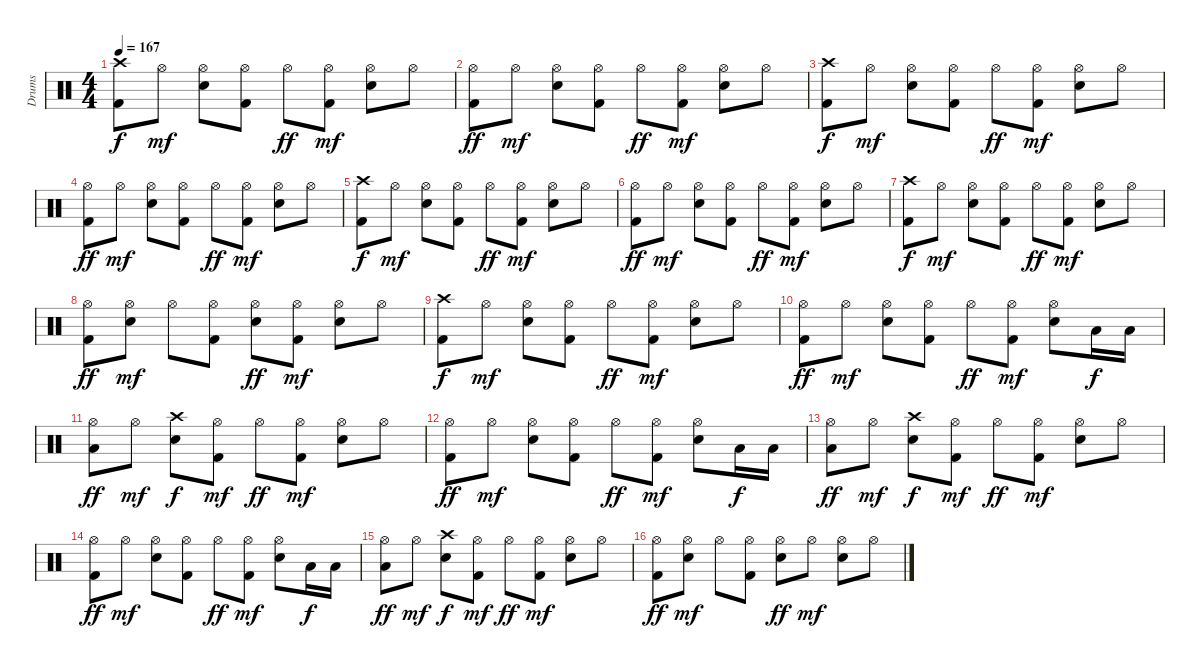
\track ("Drums" "Drums") {instrument percussion}
\staff {score}
\articulation defaults
\ts (4 4)
\tempo 167
\clef neutral
\ks c
("Crash high (hit)" "Kick (hit) 2").8{dy f} "Hi-Hat (open)".8{dy mf} ("Hi-Hat (open)" "Electric Snare (hit)").8 ("Hi-Hat (open)" "Kick (hit) 2").8 "Hi-Hat (open)".8{dy ff} ("Hi-Hat (open)" "Kick (hit) 2").8{dy mf} ("Hi-Hat (open)" "Electric Snare (hit)").8 "Hi-Hat (open)".8 |
("Hi-Hat (open)" "Kick (hit) 2").8{dy ff} "Hi-Hat (open)".8{dy mf} ("Hi-Hat (open)" "Electric Snare (hit)").8 ("Hi-Hat (open)" "Kick (hit) 2").8 "Hi-Hat (open)".8{dy ff} ("Hi-Hat (open)" "Kick (hit) 2").8{dy mf} ("Hi-Hat (open)" "Electric Snare (hit)").8 "Hi-Hat (open)".8 |
("Crash high (hit)" "Kick (hit) 2").8{dy f} "Hi-Hat (open)".8{dy mf} ("Hi-Hat (open)" "Electric Snare (hit)").8 ("Hi-Hat (open)" "Kick (hit) 2").8 "Hi-Hat (open)".8{dy ff} ("Hi-Hat (open)" "Kick (hit) 2").8{dy mf} ("Hi-Hat (open)" "Electric Snare (hit)").8 "Hi-Hat (open)".8 |
("Hi-Hat (open)" "Kick (hit) 2").8{dy ff} "Hi-Hat (open)".8{dy mf} ("Hi-Hat (open)" "Electric Snare (hit)").8 ("Hi-Hat (open)" "Kick (hit) 2").8 "Hi-Hat (open)".8{dy ff} ("Hi-Hat (open)" "Kick (hit) 2").8{dy mf} ("Hi-Hat (open)" "Electric Snare (hit)").8 "Hi-Hat (open)".8 |
("Crash high (hit)" "Kick (hit) 2").8{dy f} "Hi-Hat (open)".8{dy mf} ("Hi-Hat (open)" "Electric Snare (hit)").8 ("Hi-Hat (open)" "Kick (hit) 2").8 "Hi-Hat (open)".8{dy ff} ("Hi-Hat (open)" "Kick (hit) 2").8{dy mf} ("Hi-Hat (open)" "Electric Snare (hit)").8 "Hi-Hat (open)".8 |
("Hi-Hat (open)" "Kick (hit) 2").8{dy ff} "Hi-Hat (open)".8{dy mf} ("Hi-Hat (open)" "Electric Snare (hit)").8 ("Hi-Hat (open)" "Kick (hit) 2").8 "Hi-Hat (open)".8{dy ff} ("Hi-Hat (open)" "Kick (hit) 2").8{dy mf} ("Hi-Hat (open)" "Electric Snare (hit)").8 "Hi-Hat (open)".8 |
("Crash high (hit)" "Kick (hit) 2").8{dy f} "Hi-Hat (open)".8{dy mf} ("Hi-Hat (open)" "Electric Snare (hit)").8 ("Hi-Hat (open)" "Kick (hit) 2").8 "Hi-Hat (open)".8{dy ff} ("Hi-Hat (open)" "Kick (hit) 2").8{dy mf} ("Hi-Hat (open)" "Electric Snare (hit)").8 "Hi-Hat (open)".8 |
("Hi-Hat (open)" "Kick (hit) 2").8{dy ff} ("Hi-Hat (open)" "Electric Snare (hit)").8{dy mf} "Hi-Hat (open)".8 ("Hi-Hat (open)" "Kick (hit) 2").8 ("Hi-Hat (open)" "Electric Snare (hit)").8{dy ff} ("Hi-Hat (open)" "Kick (hit) 2").8{dy mf} ("Hi-Hat (open)" "Electric Snare (hit)").8 "Hi-Hat (open)".8 |
("Crash high (hit)" "Kick (hit) 2").8{dy f} "Hi-Hat (open)".8{dy mf} ("Hi-Hat (open)" "Electric Snare (hit)").8 ("Hi-Hat (open)" "Kick (hit) 2").8 "Hi-Hat (open)".8{dy ff} ("Hi-Hat (open)" "Kick (hit) 2").8{dy mf} ("Hi-Hat (open)" "Electric Snare (hit)").8 "Hi-Hat (open)".8 |
("Hi-Hat (open)" "Kick (hit) 2").8{dy ff} "Hi-Hat (open)".8{dy mf} ("Hi-Hat (open)" "Electric Snare (hit)").8 ("Hi-Hat (open)" "Kick (hit) 2").8 "Hi-Hat (open)".8{dy ff} ("Hi-Hat (open)" "Kick (hit) 2").8{dy mf} ("Hi-Hat (open)" "Electric Snare (hit)").8 "Low Tom (hit)".16{dy f} "Low Tom (hit)".16 |
("Hi-Hat (open)" "Low Tom (hit)").8{dy ff} "Hi-Hat (open)".8{dy mf} ("Crash high (hit)" "Electric Snare (hit)").8{dy f} ("Hi-Hat (open)" "Kick (hit) 2").8{dy mf} "Hi-Hat (open)".8{dy ff} ("Hi-Hat (open)" "Kick (hit) 2").8{dy mf} ("Hi-Hat (open)" "Electric Snare (hit)").8 "Hi-Hat (open)".8 |
("Hi-Hat (open)" "Kick (hit) 2").8{dy ff} "Hi-Hat (open)".8{dy mf} ("Hi-Hat (open)" "Electric Snare (hit)").8 ("Hi-Hat (open)" "Kick (hit) 2").8 "Hi-Hat (open)".8{dy ff} ("Hi-Hat (open)" "Kick (hit) 2").8{dy mf} ("Hi-Hat (open)" "Electric Snare (hit)").8 "Low Tom (hit)".16{dy f} "Low Tom (hit)".16 |
("Hi-Hat (open)" "Low Tom (hit)").8{dy ff} "Hi-Hat (open)".8{dy mf} ("Crash high (hit)" "Electric Snare (hit)").8{dy f} ("Hi-Hat (open)" "Kick (hit) 2").8{dy mf} "Hi-Hat (open)".8{dy ff} ("Hi-Hat (open)" "Kick (hit) 2").8{dy mf} ("Hi-Hat (open)" "Electric Snare (hit)").8 "Hi-Hat (open)".8 |
("Hi-Hat (open)" "Kick (hit) 2").8{dy ff} "Hi-Hat (open)".8{dy mf} ("Hi-Hat (open)" "Electric Snare (hit)").8 ("Hi-Hat (open)" "Kick (hit) 2").8 "Hi-Hat (open)".8{dy ff} ("Hi-Hat (open)" "Kick (hit) 2").8{dy mf} ("Hi-Hat (open)" "Electric Snare (hit)").8 "Low Tom (hit)".16{dy f} "Low Tom (hit)".16 |
("Hi-Hat (open)" "Low Tom (hit)").8{dy ff} "Hi-Hat (open)".8{dy mf} ("Crash high (hit)" "Electric Snare (hit)").8{dy f} ("Hi-Hat (open)" "Kick (hit) 2").8{dy mf} "Hi-Hat (open)".8{dy ff} ("Hi-Hat (open)" "Kick (hit) 2").8{dy mf} ("Hi-Hat (open)" "Electric Snare (hit)").8 "Hi-Hat (open)".8 |
("Hi-Hat (open)" "Kick (hit) 2").8{dy ff} ("Hi-Hat (open)" "Electric Snare (hit)").8{dy mf} "Hi-Hat (open)".8 ("Hi-Hat (open)" "Kick (hit) 2").8 ("Hi-Hat (open)" "Electric Snare (hit)").8{dy ff} "Hi-Hat (open)".8{dy mf} ("Hi-Hat (open)" "Electric Snare (hit)").8 "Hi-Hat (open)".8
